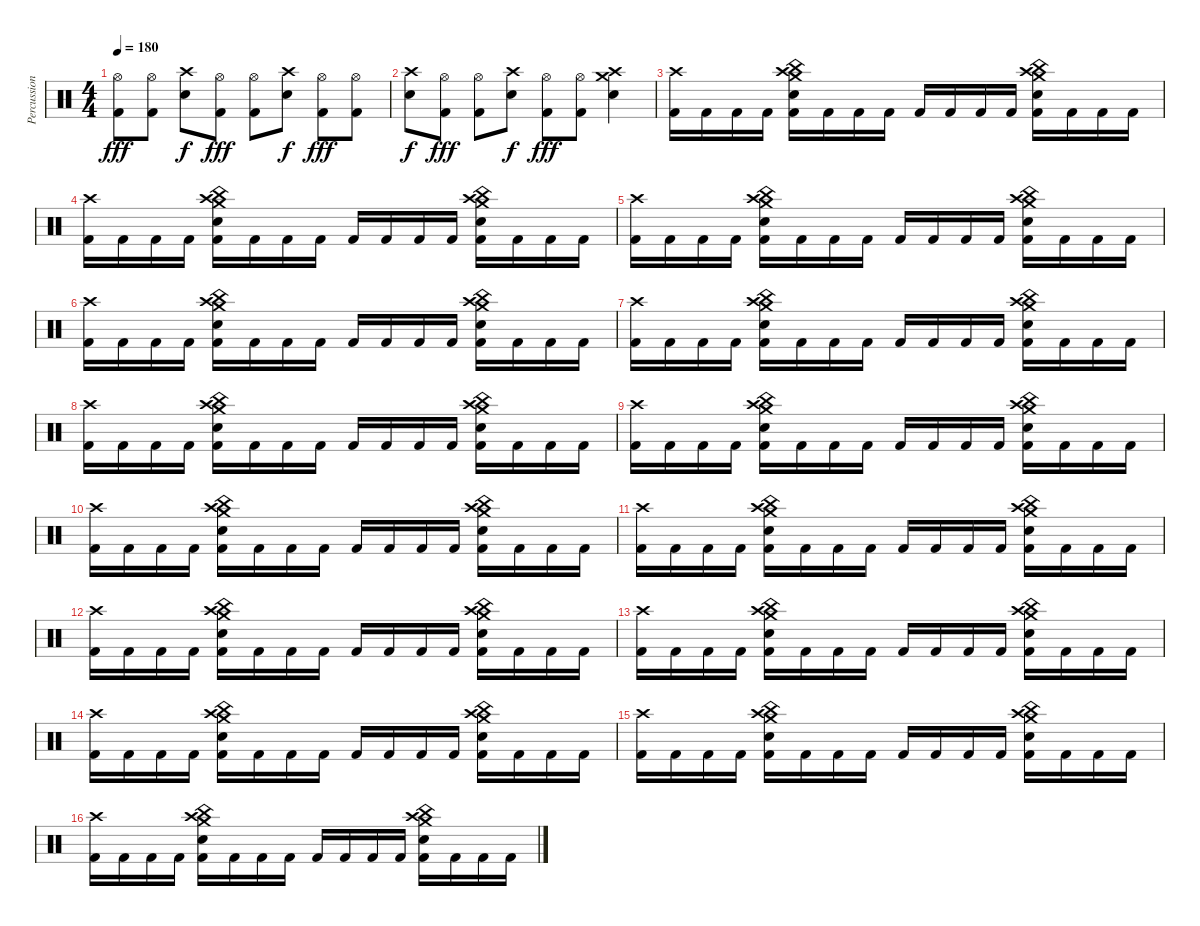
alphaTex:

\track ("Percussion" "Percussion") {instrument percussion}
\staff {score}
\articulation defaults
\ts (4 4)
\tempo 180
\clef neutral
\ks c
("Hi-Hat (open)" "Kick (hit) 2").8{dy fff} ("Hi-Hat (open)" "Kick (hit) 2").8 ("Crash high (hit)" "Snare (hit) 2").8{dy f} ("Hi-Hat (open)" "Kick (hit) 2").8{dy fff} ("Hi-Hat (open)" "Kick (hit) 2").8 ("Crash high (hit)" "Snare (hit) 2").8{dy f} ("Hi-Hat (open)" "Kick (hit) 2").8{dy fff} ("Hi-Hat (open)" "Kick (hit) 2").8 |
("Crash high (hit)" "Snare (hit) 2").8{dy f} ("Hi-Hat (open)" "Kick (hit) 2").8{dy fff} ("Hi-Hat (open)" "Kick (hit) 2").8 ("Crash high (hit)" "Snare (hit) 2").8{dy f} ("Hi-Hat (open)" "Kick (hit) 2").8{dy fff} ("Hi-Hat (open)" "Kick (hit) 2").8 ("Crash medium (hit)" "Crash high (hit)" "Snare (hit) 2").4 |
("Crash high (hit)" "Kick (hit) 2").16 "Kick (hit) 2".16 "Kick (hit) 2".16 "Kick (hit) 2".16 ("Crash medium (hit)" "China (hit)" "Crash high (hit)" "Snare (hit) 2" "Kick (hit) 2").16 "Kick (hit) 2".16 "Kick (hit) 2".16 "Kick (hit) 2".16 "Kick (hit) 2".16 "Kick (hit) 2".16 "Kick (hit) 2".16 "Kick (hit) 2".16 ("Crash medium (hit)" "China (hit)" "Crash high (hit)" "Snare (hit) 2" "Kick (hit) 2").16 "Kick (hit) 2".16 "Kick (hit) 2".16 "Kick (hit) 2".16 |
("Crash high (hit)" "Kick (hit) 2").16 "Kick (hit) 2".16 "Kick (hit) 2".16 "Kick (hit) 2".16 ("Crash medium (hit)" "China (hit)" "Crash high (hit)" "Snare (hit) 2" "Kick (hit) 2").16 "Kick (hit) 2".16 "Kick (hit) 2".16 "Kick (hit) 2".16 "Kick (hit) 2".16 "Kick (hit) 2".16 "Kick (hit) 2".16 "Kick (hit) 2".16 ("Crash medium (hit)" "China (hit)" "Crash high (hit)" "Snare (hit) 2" "Kick (hit) 2").16 "Kick (hit) 2".16 "Kick (hit) 2".16 "Kick (hit) 2".16 |
("Crash high (hit)" "Kick (hit) 2").16 "Kick (hit) 2".16 "Kick (hit) 2".16 "Kick (hit) 2".16 ("Crash medium (hit)" "China (hit)" "Crash high (hit)" "Snare (hit) 2" "Kick (hit) 2").16 "Kick (hit) 2".16 "Kick (hit) 2".16 "Kick (hit) 2".16 "Kick (hit) 2".16 "Kick (hit) 2".16 "Kick (hit) 2".16 "Kick (hit) 2".16 ("Crash medium (hit)" "China (hit)" "Crash high (hit)" "Snare (hit) 2" "Kick (hit) 2").16 "Kick (hit) 2".16 "Kick (hit) 2".16 "Kick (hit) 2".16 |
("Crash high (hit)" "Kick (hit) 2").16 "Kick (hit) 2".16 "Kick (hit) 2".16 "Kick (hit) 2".16 ("Crash medium (hit)" "China (hit)" "Crash high (hit)" "Snare (hit) 2" "Kick (hit) 2").16 "Kick (hit) 2".16 "Kick (hit) 2".16 "Kick (hit) 2".16 "Kick (hit) 2".16 "Kick (hit) 2".16 "Kick (hit) 2".16 "Kick (hit) 2".16 ("Crash medium (hit)" "China (hit)" "Crash high (hit)" "Snare (hit) 2" "Kick (hit) 2").16 "Kick (hit) 2".16 "Kick (hit) 2".16 "Kick (hit) 2".16 |
("Crash high (hit)" "Kick (hit) 2").16 "Kick (hit) 2".16 "Kick (hit) 2".16 "Kick (hit) 2".16 ("Crash medium (hit)" "China (hit)" "Crash high (hit)" "Snare (hit) 2" "Kick (hit) 2").16 "Kick (hit) 2".16 "Kick (hit) 2".16 "Kick (hit) 2".16 "Kick (hit) 2".16 "Kick (hit) 2".16 "Kick (hit) 2".16 "Kick (hit) 2".16 ("Crash medium (hit)" "China (hit)" "Crash high (hit)" "Snare (hit) 2" "Kick (hit) 2").16 "Kick (hit) 2".16 "Kick (hit) 2".16 "Kick (hit) 2".16 |
("Crash high (hit)" "Kick (hit) 2").16 "Kick (hit) 2".16 "Kick (hit) 2".16 "Kick (hit) 2".16 ("Crash medium (hit)" "China (hit)" "Crash high (hit)" "Snare (hit) 2" "Kick (hit) 2").16 "Kick (hit) 2".16 "Kick (hit) 2".16 "Kick (hit) 2".16 "Kick (hit) 2".16 "Kick (hit) 2".16 "Kick (hit) 2".16 "Kick (hit) 2".16 ("Crash medium (hit)" "China (hit)" "Crash high (hit)" "Snare (hit) 2" "Kick (hit) 2").16 "Kick (hit) 2".16 "Kick (hit) 2".16 "Kick (hit) 2".16 |
("Crash high (hit)" "Kick (hit) 2").16 "Kick (hit) 2".16 "Kick (hit) 2".16 "Kick (hit) 2".16 ("Crash medium (hit)" "China (hit)" "Crash high (hit)" "Snare (hit) 2" "Kick (hit) 2").16 "Kick (hit) 2".16 "Kick (hit) 2".16 "Kick (hit) 2".16 "Kick (hit) 2".16 "Kick (hit) 2".16 "Kick (hit) 2".16 "Kick (hit) 2".16 ("Crash medium (hit)" "China (hit)" "Crash high (hit)" "Snare (hit) 2" "Kick (hit) 2").16 "Kick (hit) 2".16 "Kick (hit) 2".16 "Kick (hit) 2".16 |
("Crash high (hit)" "Kick (hit) 2").16 "Kick (hit) 2".16 "Kick (hit) 2".16 "Kick (hit) 2".16 ("Crash medium (hit)" "China (hit)" "Crash high (hit)" "Snare (hit) 2" "Kick (hit) 2").16 "Kick (hit) 2".16 "Kick (hit) 2".16 "Kick (hit) 2".16 "Kick (hit) 2".16 "Kick (hit) 2".16 "Kick (hit) 2".16 "Kick (hit) 2".16 ("Crash medium (hit)" "China (hit)" "Crash high (hit)" "Snare (hit) 2" "Kick (hit) 2").16 "Kick (hit) 2".16 "Kick (hit) 2".16 "Kick (hit) 2".16 |
("Crash high (hit)" "Kick (hit) 2").16 "Kick (hit) 2".16 "Kick (hit) 2".16 "Kick (hit) 2".16 ("Crash medium (hit)" "China (hit)" "Crash high (hit)" "Snare (hit) 2" "Kick (hit) 2").16 "Kick (hit) 2".16 "Kick (hit) 2".16 "Kick (hit) 2".16 "Kick (hit) 2".16 "Kick (hit) 2".16 "Kick (hit) 2".16 "Kick (hit) 2".16 ("Crash medium (hit)" "China (hit)" "Crash high (hit)" "Snare (hit) 2" "Kick (hit) 2").16 "Kick (hit) 2".16 "Kick (hit) 2".16 "Kick (hit) 2".16 |
("Crash high (hit)" "Kick (hit) 2").16 "Kick (hit) 2".16 "Kick (hit) 2".16 "Kick (hit) 2".16 ("Crash medium (hit)" "China (hit)" "Crash high (hit)" "Snare (hit) 2" "Kick (hit) 2").16 "Kick (hit) 2".16 "Kick (hit) 2".16 "Kick (hit) 2".16 "Kick (hit) 2".16 "Kick (hit) 2".16 "Kick (hit) 2".16 "Kick (hit) 2".16 ("Crash medium (hit)" "China (hit)" "Crash high (hit)" "Snare (hit) 2" "Kick (hit) 2").16 "Kick (hit) 2".16 "Kick (hit) 2".16 "Kick (hit) 2".16 |
("Crash high (hit)" "Kick (hit) 2").16 "Kick (hit) 2".16 "Kick (hit) 2".16 "Kick (hit) 2".16 ("Crash medium (hit)" "China (hit)" "Crash high (hit)" "Snare (hit) 2" "Kick (hit) 2").16 "Kick (hit) 2".16 "Kick (hit) 2".16 "Kick (hit) 2".16 "Kick (hit) 2".16 "Kick (hit) 2".16 "Kick (hit) 2".16 "Kick (hit) 2".16 ("Crash medium (hit)" "China (hit)" "Crash high (hit)" "Snare (hit) 2" "Kick (hit) 2").16 "Kick (hit) 2".16 "Kick (hit) 2".16 "Kick (hit) 2".16 |
("Crash high (hit)" "Kick (hit) 2").16 "Kick (hit) 2".16 "Kick (hit) 2".16 "Kick (hit) 2".16 ("Crash medium (hit)" "China (hit)" "Crash high (hit)" "Snare (hit) 2" "Kick (hit) 2").16 "Kick (hit) 2".16 "Kick (hit) 2".16 "Kick (hit) 2".16 "Kick (hit) 2".16 "Kick (hit) 2".16 "Kick (hit) 2".16 "Kick (hit) 2".16 ("Crash medium (hit)" "China (hit)" "Crash high (hit)" "Snare (hit) 2" "Kick (hit) 2").16 "Kick (hit) 2".16 "Kick (hit) 2".16 "Kick (hit) 2".16 |
("Crash high (hit)" "Kick (hit) 2").16 "Kick (hit) 2".16 "Kick (hit) 2".16 "Kick (hit) 2".16 ("Crash medium (hit)" "China (hit)" "Crash high (hit)" "Snare (hit) 2" "Kick (hit) 2").16 "Kick (hit) 2".16 "Kick (hit) 2".16 "Kick (hit) 2".16 "Kick (hit) 2".16 "Kick (hit) 2".16 "Kick (hit) 2".16 "Kick (hit) 2".16 ("Crash medium (hit)" "China (hit)" "Crash high (hit)" "Snare (hit) 2" "Kick (hit) 2").16 "Kick (hit) 2".16 "Kick (hit) 2".16 "Kick (hit) 2".16 |
("Crash high (hit)" "Kick (hit) 2").16 "Kick (hit) 2".16 "Kick (hit) 2".16 "Kick (hit) 2".16 ("Crash medium (hit)" "China (hit)" "Crash high (hit)" "Snare (hit) 2" "Kick (hit) 2").16 "Kick (hit) 2".16 "Kick (hit) 2".16 "Kick (hit) 2".16 "Kick (hit) 2".16 "Kick (hit) 2".16 "Kick (hit) 2".16 "Kick (hit) 2".16 ("Crash medium (hit)" "China (hit)" "Crash high (hit)" "Snare (hit) 2" "Kick (hit) 2").16 "Kick (hit) 2".16 "Kick (hit) 2".16 "Kick (hit) 2".16
